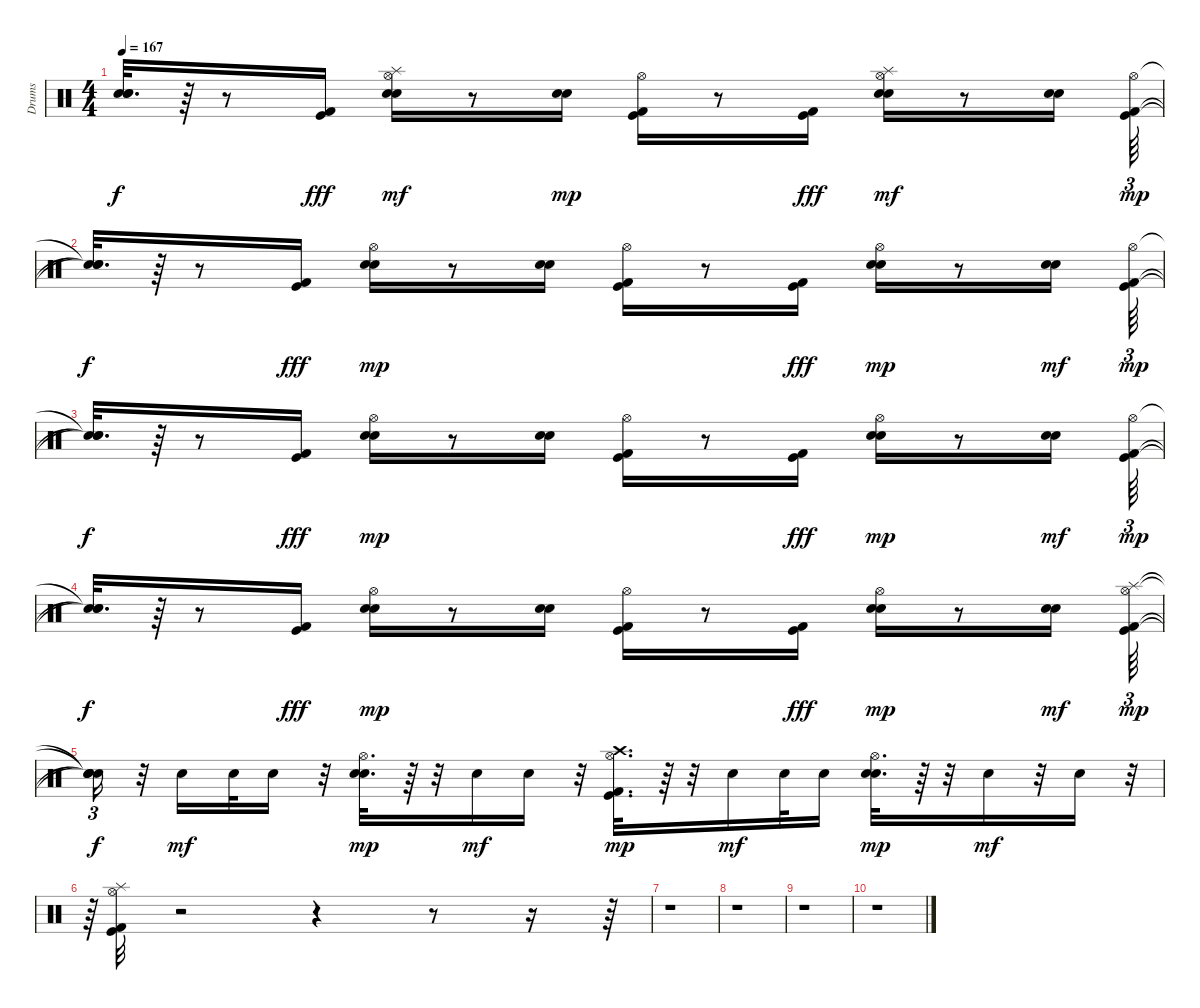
\track ("Drums" "Drums") {instrument percussion}
\staff {score}
\articulation defaults
\ts (4 4)
\tempo 167
\clef neutral
\ks c
("Snare (hit)"{t} "Snare (hit)"{t} "Snare (hit)"{t}).32{d dy f} r.64 r.8 ("Kick (hit) 2" "Kick (hit)").16{dy fff} ("Snare (hit) 2" "Hand Clap (hit)" "Hi-Hat (open)" "Splash (hit)").16{dy mf} r.8 ("Snare (hit) 2" "Hand Clap (hit)").16{dy mp} ("Kick (hit) 2" "Kick (hit)" "Hi-Hat (open)").16 r.8 ("Kick (hit) 2" "Kick (hit)").16{dy fff} ("Snare (hit) 2" "Hand Clap (hit)" "Hi-Hat (open)" "Splash (hit)").16{dy mf} r.8 ("Snare (hit) 2" "Hand Clap (hit)").16 ("Kick (hit) 2" "Kick (hit)" "Hi-Hat (open)").64{tu (3 2) dy mp} |
("Snare (hit)"{t} "Snare (hit)"{t} "Snare (hit)"{t}).32{d dy f} r.64 r.8 ("Kick (hit) 2" "Kick (hit)").16{dy fff} ("Snare (hit) 2" "Hand Clap (hit)" "Hi-Hat (open)").16{dy mp} r.8 ("Snare (hit) 2" "Hand Clap (hit)").16 ("Kick (hit) 2" "Kick (hit)" "Hi-Hat (open)").16 r.8 ("Kick (hit) 2" "Kick (hit)").16{dy fff} ("Snare (hit) 2" "Hand Clap (hit)" "Hi-Hat (open)").16{dy mp} r.8 ("Snare (hit) 2" "Hand Clap (hit)").16{dy mf} ("Kick (hit) 2" "Kick (hit)" "Hi-Hat (open)").64{tu (3 2) dy mp} |
("Snare (hit)"{t} "Snare (hit)"{t} "Snare (hit)"{t}).32{d dy f} r.64 r.8 ("Kick (hit) 2" "Kick (hit)").16{dy fff} ("Snare (hit) 2" "Hand Clap (hit)" "Hi-Hat (open)").16{dy mp} r.8 ("Snare (hit) 2" "Hand Clap (hit)").16 ("Kick (hit) 2" "Kick (hit)" "Hi-Hat (open)").16 r.8 ("Kick (hit) 2" "Kick (hit)").16{dy fff} ("Snare (hit) 2" "Hand Clap (hit)" "Hi-Hat (open)").16{dy mp} r.8 ("Snare (hit) 2" "Hand Clap (hit)").16{dy mf} ("Kick (hit) 2" "Kick (hit)" "Hi-Hat (open)").64{tu (3 2) dy mp} |
("Snare (hit)"{t} "Snare (hit)"{t} "Snare (hit)"{t}).32{d dy f} r.64 r.8 ("Kick (hit) 2" "Kick (hit)").16{dy fff} ("Snare (hit) 2" "Hand Clap (hit)" "Hi-Hat (open)").16{dy mp} r.8 ("Snare (hit) 2" "Hand Clap (hit)").16 ("Kick (hit) 2" "Kick (hit)" "Hi-Hat (open)").16 r.8 ("Kick (hit) 2" "Kick (hit)").16{dy fff} ("Snare (hit) 2" "Hand Clap (hit)" "Hi-Hat (open)").16{dy mp} r.8 ("Snare (hit) 2" "Hand Clap (hit)").16{dy mf} ("Kick (hit) 2" "Kick (hit)" "Splash (hit)" "Hi-Hat (open)").64{tu (3 2) dy mp} |
("Snare (hit)"{t} "Snare (hit)"{t} "Snare (hit)"{t} "Snare (hit)"{t}).16{tu (3 2) dy f} r.32 "Snare (hit) 2".16{dy mf} "Snare (hit) 2".32 "Snare (hit) 2".16 r.32 ("Snare (hit) 2" "Hand Clap (hit)" "Hi-Hat (open)").32{d dy mp} r.64 r.32 "Snare (hit) 2".16{dy mf} "Snare (hit) 2".16 r.32 ("Kick (hit) 2" "Kick (hit)" "Crash high (hit)" "Hi-Hat (open)").32{d dy mp} r.64 r.32 "Snare (hit) 2".16{dy mf} "Snare (hit) 2".32 "Snare (hit) 2".16 ("Hand Clap (hit)" "Snare (hit) 2" "Hi-Hat (open)").32{d dy mp} r.64 r.32 "Snare (hit) 2".16{dy mf} r.32 "Snare (hit) 2".16 r.32{tu (3 2)} |
r.64{tu (3 2)} ("Kick (hit) 2" "Kick (hit)" "Hi-Hat (open)" "Splash (hit)").32 r.2 r.4 r.8 r.16 r.64 |
r.1 |
r.1 |
r.1 |
r.1
